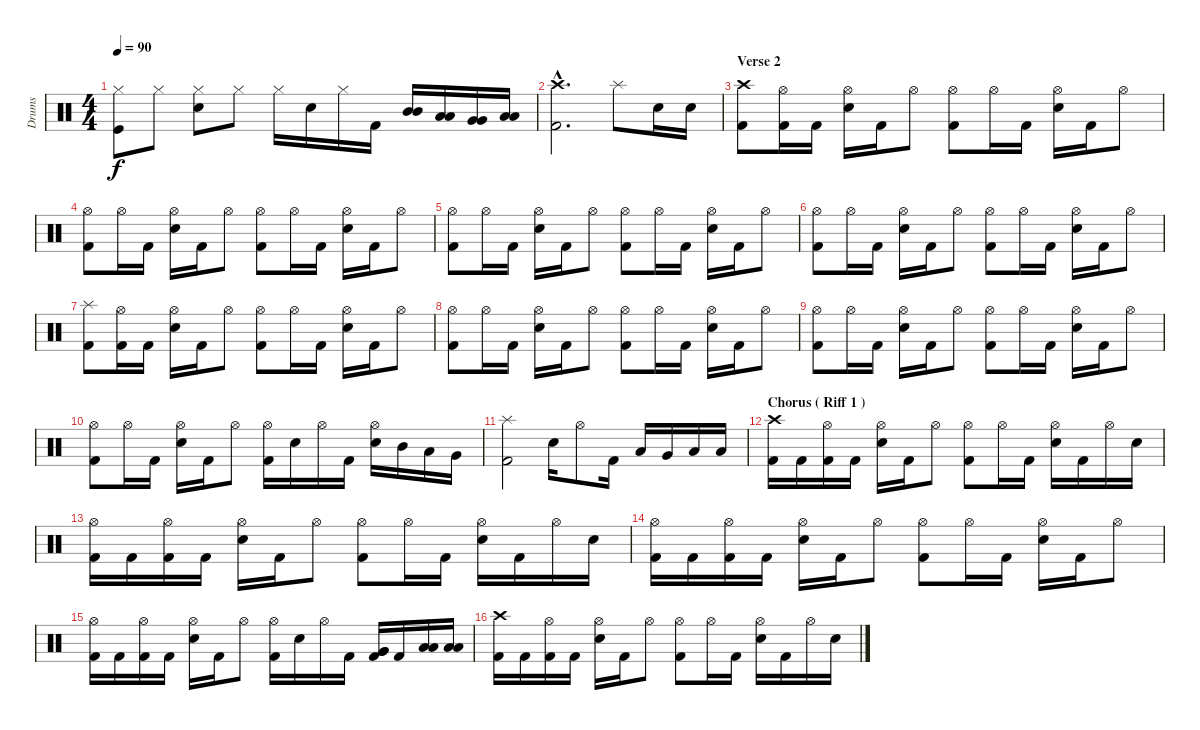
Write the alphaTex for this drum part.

\track ("Drums" "Drums") {instrument percussion}
\staff {score}
\articulation defaults
\ts (4 4)
\tempo 90
\clef neutral
\ks c
("Hi-Hat (closed)" "Kick (hit)").8{dy f volume 10} "Hi-Hat (closed)".8 ("Hi-Hat (closed)" "Snare (hit) 2").8 "Hi-Hat (closed)".8 "Hi-Hat (closed)".16 "Snare (hit) 2".16 "Hi-Hat (closed)".16 "Kick (hit) 2".16 ("Mid Tom (hit)" "Mid Tom (hit)").16 ("Low Tom (hit)" "Low Tom (hit)").16 ("Very Low Tom (hit)" "Very Low Tom (hit)").16 ("Low Floor Tom (hit)" "Low Floor Tom (hit)").16 |
("Crash high (hit)"{hac} "Kick (hit) 2"{hac}).2{d} "Splash (hit)".8{volume 16} "Electric Snare (hit)".16 "Electric Snare (hit)".16 |
\section ("" "Verse 2")
("Crash high (hit)" "Kick (hit) 2").8 ("Hi-Hat (open)" "Kick (hit) 2").16 "Kick (hit) 2".16 ("Hi-Hat (open)" "Electric Snare (hit)").16 "Kick (hit) 2".16 "Hi-Hat (open)".8 ("Hi-Hat (open)" "Kick (hit) 2").8 "Hi-Hat (open)".16 "Kick (hit) 2".16 ("Hi-Hat (open)" "Electric Snare (hit)").16 "Kick (hit) 2".16 "Hi-Hat (open)".8 |
("Hi-Hat (open)" "Kick (hit) 2").8 "Hi-Hat (open)".16 "Kick (hit) 2".16 ("Hi-Hat (open)" "Electric Snare (hit)").16 "Kick (hit) 2".16 "Hi-Hat (open)".8 ("Hi-Hat (open)" "Kick (hit) 2").8 "Hi-Hat (open)".16 "Kick (hit) 2".16 ("Hi-Hat (open)" "Electric Snare (hit)").16 "Kick (hit) 2".16 "Hi-Hat (open)".8 |
("Hi-Hat (open)" "Kick (hit) 2").8 "Hi-Hat (open)".16 "Kick (hit) 2".16 ("Hi-Hat (open)" "Electric Snare (hit)").16 "Kick (hit) 2".16 "Hi-Hat (open)".8 ("Hi-Hat (open)" "Kick (hit) 2").8 "Hi-Hat (open)".16 "Kick (hit) 2".16 ("Hi-Hat (open)" "Electric Snare (hit)").16 "Kick (hit) 2".16 "Hi-Hat (open)".8 |
("Hi-Hat (open)" "Kick (hit) 2").8 "Hi-Hat (open)".16 "Kick (hit) 2".16 ("Hi-Hat (open)" "Electric Snare (hit)").16 "Kick (hit) 2".16 "Hi-Hat (open)".8 ("Hi-Hat (open)" "Kick (hit) 2").8 "Hi-Hat (open)".16 "Kick (hit) 2".16 ("Hi-Hat (open)" "Electric Snare (hit)").16 "Kick (hit) 2".16 "Hi-Hat (open)".8 |
("Splash (hit)" "Kick (hit) 2").8 ("Hi-Hat (open)" "Kick (hit) 2").16 "Kick (hit) 2".16 ("Hi-Hat (open)" "Electric Snare (hit)").16 "Kick (hit) 2".16 "Hi-Hat (open)".8 ("Hi-Hat (open)" "Kick (hit) 2").8 "Hi-Hat (open)".16 "Kick (hit) 2".16 ("Hi-Hat (open)" "Electric Snare (hit)").16 "Kick (hit) 2".16 "Hi-Hat (open)".8 |
("Hi-Hat (open)" "Kick (hit) 2").8 "Hi-Hat (open)".16 "Kick (hit) 2".16 ("Hi-Hat (open)" "Electric Snare (hit)").16 "Kick (hit) 2".16 "Hi-Hat (open)".8 ("Hi-Hat (open)" "Kick (hit) 2").8 "Hi-Hat (open)".16 "Kick (hit) 2".16 ("Hi-Hat (open)" "Electric Snare (hit)").16 "Kick (hit) 2".16 "Hi-Hat (open)".8 |
("Hi-Hat (open)" "Kick (hit) 2").8 "Hi-Hat (open)".16 "Kick (hit) 2".16 ("Hi-Hat (open)" "Electric Snare (hit)").16 "Kick (hit) 2".16 "Hi-Hat (open)".8 ("Hi-Hat (open)" "Kick (hit) 2").8 "Hi-Hat (open)".16 "Kick (hit) 2".16 ("Hi-Hat (open)" "Electric Snare (hit)").16 "Kick (hit) 2".16 "Hi-Hat (open)".8 |
("Hi-Hat (open)" "Kick (hit) 2").8 "Hi-Hat (open)".16 "Kick (hit) 2".16 ("Hi-Hat (open)" "Electric Snare (hit)").16 "Kick (hit) 2".16 "Hi-Hat (open)".8 ("Hi-Hat (open)" "Kick (hit) 2").16 "Electric Snare (hit)".16 "Hi-Hat (open)".16 "Kick (hit) 2".16 ("Hi-Hat (open)" "Electric Snare (hit)").16 "Mid Tom (hit)".16 "Low Tom (hit)".16 "Very Low Tom (hit)".16 |
("Splash (hit)" "Kick (hit) 2").2 "Electric Snare (hit)".16 "Hi-Hat (open)".8 "Kick (hit) 2".16 "Low Tom (hit)".16 "Very Low Tom (hit)".16 "Low Floor Tom (hit)".16 "Low Floor Tom (hit)".16 |
\section ("" "Chorus ( Riff 1 )")
("Crash high (hit)" "Kick (hit) 2").16 "Kick (hit) 2".16 ("Hi-Hat (open)" "Kick (hit) 2").16 "Kick (hit) 2".16 ("Hi-Hat (open)" "Electric Snare (hit)").16 "Kick (hit) 2".16 "Hi-Hat (open)".8 ("Hi-Hat (open)" "Kick (hit) 2").8 "Hi-Hat (open)".16 "Kick (hit) 2".16 ("Hi-Hat (open)" "Electric Snare (hit)").16 "Kick (hit) 2".16 "Hi-Hat (open)".16 "Electric Snare (hit)".16 |
("Hi-Hat (open)" "Kick (hit) 2").16 "Kick (hit) 2".16 ("Hi-Hat (open)" "Kick (hit) 2").16 "Kick (hit) 2".16 ("Hi-Hat (open)" "Electric Snare (hit)").16 "Kick (hit) 2".16 "Hi-Hat (open)".8 ("Hi-Hat (open)" "Kick (hit) 2").8 "Hi-Hat (open)".16 "Kick (hit) 2".16 ("Hi-Hat (open)" "Electric Snare (hit)").16 "Kick (hit) 2".16 "Hi-Hat (open)".16 "Electric Snare (hit)".16 |
("Hi-Hat (open)" "Kick (hit) 2").16 "Kick (hit) 2".16 ("Hi-Hat (open)" "Kick (hit) 2").16 "Kick (hit) 2".16 ("Hi-Hat (open)" "Electric Snare (hit)").16 "Kick (hit) 2".16 "Hi-Hat (open)".8 ("Hi-Hat (open)" "Kick (hit) 2").8 "Hi-Hat (open)".16 "Kick (hit) 2".16 ("Hi-Hat (open)" "Electric Snare (hit)").16 "Kick (hit) 2".16 "Hi-Hat (open)".8 |
("Hi-Hat (open)" "Kick (hit) 2").16 "Kick (hit) 2".16 ("Hi-Hat (open)" "Kick (hit) 2").16 "Kick (hit) 2".16 ("Hi-Hat (open)" "Electric Snare (hit)").16 "Kick (hit) 2".16 "Hi-Hat (open)".8 ("Hi-Hat (open)" "Kick (hit) 2").16 "Electric Snare (hit)".16 "Hi-Hat (open)".16 "Kick (hit) 2".16 ("Very Low Tom (hit)" "Very Low Tom (hit)" "Kick (hit) 2").16 "Kick (hit) 2".16 ("Low Floor Tom (hit)" "Low Floor Tom (hit)").16 ("Low Floor Tom (hit)" "Low Floor Tom (hit)").16 |
("Crash high (hit)" "Kick (hit) 2").16 "Kick (hit) 2".16 ("Hi-Hat (open)" "Kick (hit) 2").16 "Kick (hit) 2".16 ("Hi-Hat (open)" "Electric Snare (hit)").16 "Kick (hit) 2".16 "Hi-Hat (open)".8 ("Hi-Hat (open)" "Kick (hit) 2").8 "Hi-Hat (open)".16 "Kick (hit) 2".16 ("Hi-Hat (open)" "Electric Snare (hit)").16 "Kick (hit) 2".16 "Hi-Hat (open)".16 "Electric Snare (hit)".16
